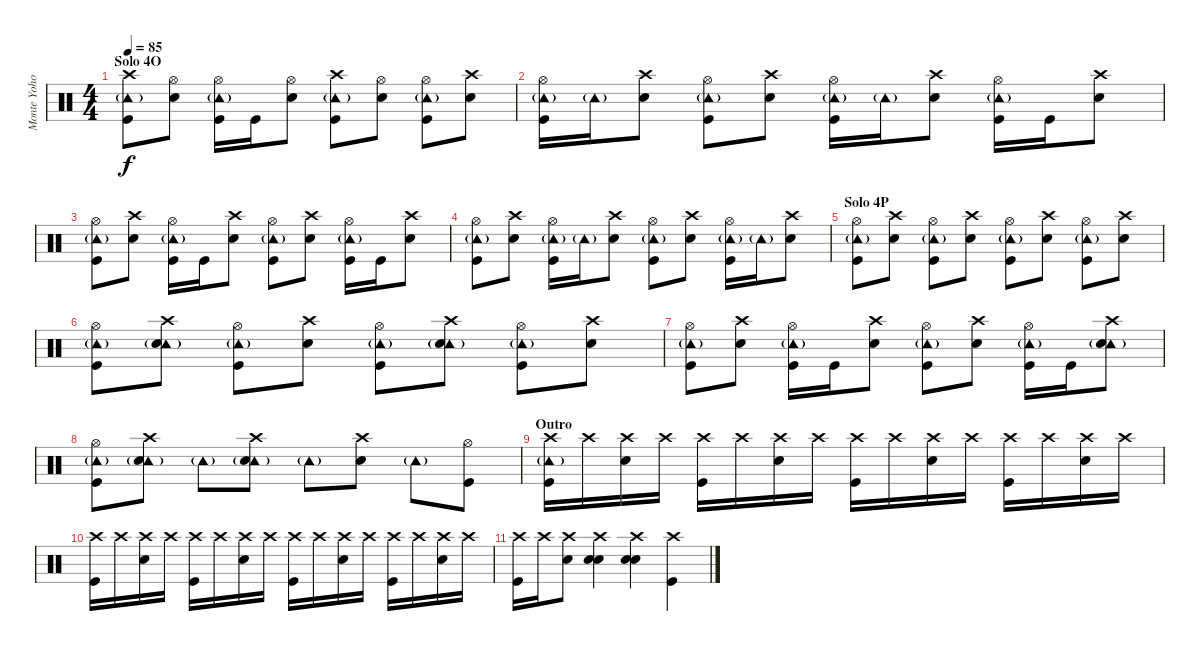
\track ("Monte Yoho - Drums" "Monte Yoho") {instrument percussion}
\staff {score}
\articulation defaults
\ts (4 4)
\section ("" "Solo 4O")
\tempo 85
\clef neutral
\ks c
("Crash high (hit)" "Tambourine (hit)"{g} "Kick (hit)").8{dy f} ("Hi-Hat (open)" "Snare (hit) 2").8 ("Hi-Hat (open)" "Tambourine (hit)"{g} "Kick (hit)").16 "Kick (hit)".16 ("Hi-Hat (open)" "Snare (hit) 2").8 ("Crash high (hit)" "Tambourine (hit)"{g} "Kick (hit)").8 ("Hi-Hat (open)" "Snare (hit) 2").8 ("Hi-Hat (open)" "Tambourine (hit)"{g} "Kick (hit)").8 ("Crash high (hit)" "Snare (hit) 2").8 |
("Hi-Hat (open)" "Tambourine (hit)"{g} "Kick (hit)").16 "Tambourine (hit)"{g}.16 ("Crash high (hit)" "Snare (hit) 2").8 ("Hi-Hat (open)" "Tambourine (hit)"{g} "Kick (hit)").8 ("Crash high (hit)" "Snare (hit) 2").8 ("Hi-Hat (open)" "Tambourine (hit)"{g} "Kick (hit)").16 "Tambourine (hit)"{g}.16 ("Crash high (hit)" "Snare (hit) 2").8 ("Hi-Hat (open)" "Tambourine (hit)"{g} "Kick (hit)").16 "Kick (hit)".16 ("Crash high (hit)" "Snare (hit) 2").8 |
("Hi-Hat (open)" "Tambourine (hit)"{g} "Kick (hit)").8 ("Crash high (hit)" "Snare (hit) 2").8 ("Hi-Hat (open)" "Tambourine (hit)"{g} "Kick (hit)").16 "Kick (hit)".16 ("Crash high (hit)" "Snare (hit) 2").8 ("Hi-Hat (open)" "Tambourine (hit)"{g} "Kick (hit)").8 ("Crash high (hit)" "Snare (hit) 2").8 ("Hi-Hat (open)" "Tambourine (hit)"{g} "Kick (hit)").16 "Kick (hit)".16 ("Crash high (hit)" "Snare (hit) 2").8 |
("Hi-Hat (open)" "Tambourine (hit)"{g} "Kick (hit)").8 ("Crash high (hit)" "Snare (hit) 2").8 ("Hi-Hat (open)" "Tambourine (hit)"{g} "Kick (hit)").16 "Tambourine (hit)"{g}.16 ("Crash high (hit)" "Snare (hit) 2").8 ("Hi-Hat (open)" "Tambourine (hit)"{g} "Kick (hit)").8 ("Crash high (hit)" "Snare (hit) 2").8 ("Hi-Hat (open)" "Tambourine (hit)"{g} "Kick (hit)").16 "Tambourine (hit)"{g}.16 ("Crash high (hit)" "Snare (hit) 2").8 |
\section ("" "Solo 4P")
("Hi-Hat (open)" "Tambourine (hit)"{g} "Kick (hit)").8 ("Crash high (hit)" "Snare (hit) 2").8 ("Hi-Hat (open)" "Tambourine (hit)"{g} "Kick (hit)").8 ("Crash high (hit)" "Snare (hit) 2").8 ("Hi-Hat (open)" "Tambourine (hit)"{g} "Kick (hit)").8 ("Crash high (hit)" "Snare (hit) 2").8 ("Hi-Hat (open)" "Tambourine (hit)"{g} "Kick (hit)").8 ("Crash high (hit)" "Snare (hit) 2").8 |
("Hi-Hat (open)" "Tambourine (hit)"{g} "Kick (hit)").8 ("Crash high (hit)" "Tambourine (hit)"{g} "Snare (hit) 2").8 ("Hi-Hat (open)" "Tambourine (hit)"{g} "Kick (hit)").8 ("Crash high (hit)" "Snare (hit) 2").8 ("Hi-Hat (open)" "Tambourine (hit)"{g} "Kick (hit)").8 ("Crash high (hit)" "Tambourine (hit)"{g} "Snare (hit) 2").8 ("Hi-Hat (open)" "Tambourine (hit)"{g} "Kick (hit)").8 ("Crash high (hit)" "Snare (hit) 2").8 |
("Hi-Hat (open)" "Tambourine (hit)"{g} "Kick (hit)").8 ("Crash high (hit)" "Snare (hit) 2").8 ("Hi-Hat (open)" "Tambourine (hit)"{g} "Kick (hit)").16 "Kick (hit)".16 ("Crash high (hit)" "Snare (hit) 2").8 ("Hi-Hat (open)" "Tambourine (hit)"{g} "Kick (hit)").8 ("Crash high (hit)" "Snare (hit) 2").8 ("Hi-Hat (open)" "Tambourine (hit)"{g} "Kick (hit)").16 "Kick (hit)".16 ("Crash high (hit)" "Tambourine (hit)"{g} "Snare (hit) 2").8 |
("Hi-Hat (open)" "Tambourine (hit)"{g} "Kick (hit)").8 ("Crash high (hit)" "Tambourine (hit)"{g} "Snare (hit) 2").8 "Tambourine (hit)"{g}.8 ("Crash high (hit)" "Tambourine (hit)"{g} "Snare (hit) 2").8 "Tambourine (hit)"{g}.8 ("Crash high (hit)" "Snare (hit) 2").8 "Tambourine (hit)"{g}.8 ("Hi-Hat (open)" "Kick (hit)").8 |
\section ("" "Outro")
("Crash high (hit)" "Tambourine (hit)"{g} "Kick (hit)").16 "Crash high (hit)".16 ("Crash high (hit)" "Snare (hit) 2").16 "Crash high (hit)".16 ("Crash high (hit)" "Kick (hit)").16 "Crash high (hit)".16 ("Crash high (hit)" "Snare (hit) 2").16 "Crash high (hit)".16 ("Crash high (hit)" "Kick (hit)").16 "Crash high (hit)".16 ("Crash high (hit)" "Snare (hit) 2").16 "Crash high (hit)".16 ("Crash high (hit)" "Kick (hit)").16 "Crash high (hit)".16 ("Crash high (hit)" "Snare (hit) 2").16 "Crash high (hit)".16 |
("Crash high (hit)" "Kick (hit)").16 "Crash high (hit)".16 ("Crash high (hit)" "Snare (hit) 2").16 "Crash high (hit)".16 ("Crash high (hit)" "Kick (hit)").16 "Crash high (hit)".16 ("Crash high (hit)" "Snare (hit) 2").16 "Crash high (hit)".16 ("Crash high (hit)" "Kick (hit)").16 "Crash high (hit)".16 ("Crash high (hit)" "Snare (hit) 2").16 "Crash high (hit)".16 ("Crash high (hit)" "Kick (hit)").16 "Crash high (hit)".16 ("Crash high (hit)" "Snare (hit) 2").16 "Crash high (hit)".16 |
("Crash high (hit)" "Kick (hit)").16 "Crash high (hit)".16 ("Crash high (hit)" "Snare (hit) 2").8 ("Crash high (hit)" "Snare (hit) 2" "Snare (hit) 2").4 ("Crash high (hit)" "Snare (hit) 2" "Snare (hit) 2").4 ("Crash high (hit)" "Kick (hit)").4
